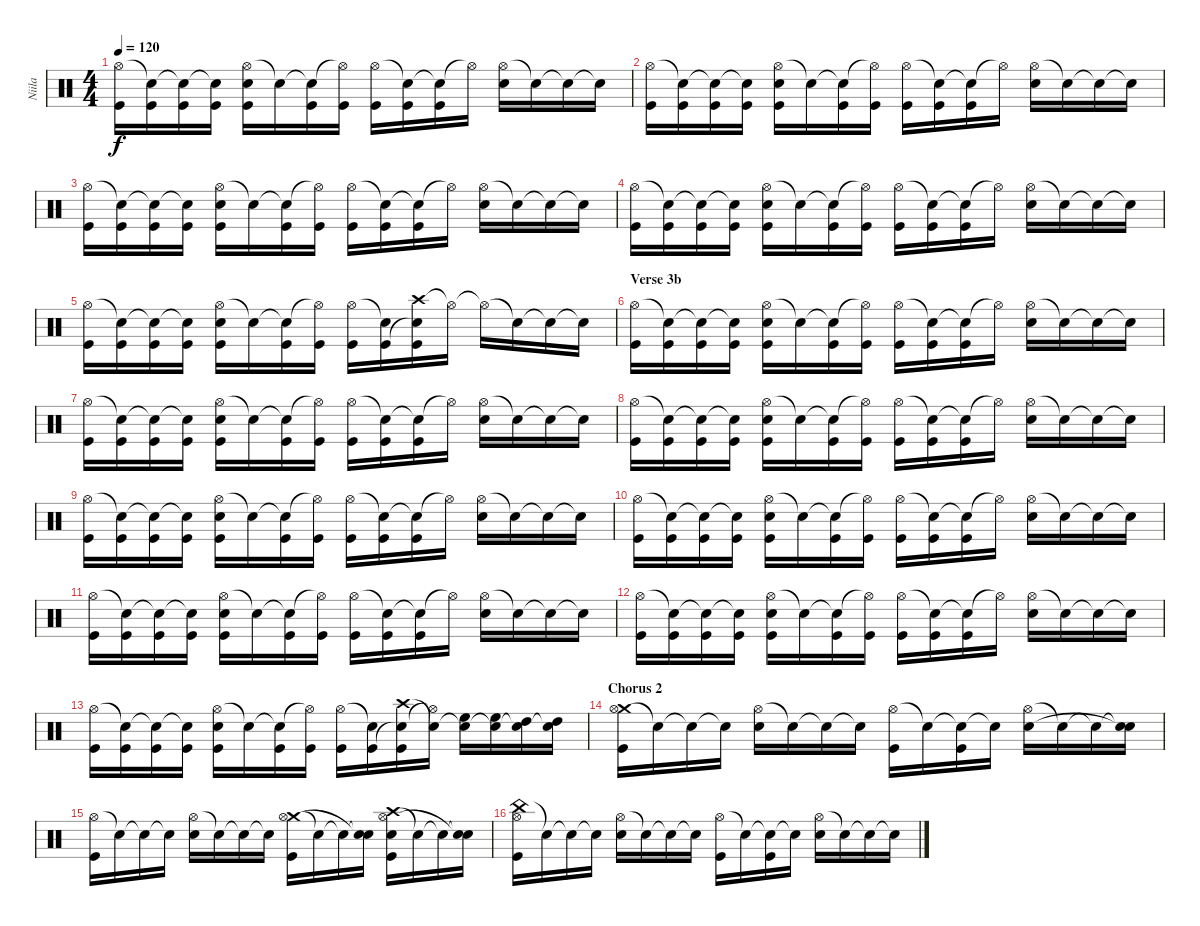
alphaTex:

\track ("Niila" "Niila") {instrument percussion}
\staff {score}
\articulation defaults
\ts (4 4)
\tempo 120
\clef neutral
\ks c
("Hi-Hat (open)" "Kick (hit)").16{dy f} ("Snare (hit)"{t} "Kick (hit)").16 ("Snare (hit)"{t} "Kick (hit)").16 ("Snare (hit)"{t} "Kick (hit)").16 ("Hi-Hat (open)" "Snare (hit) 2" "Kick (hit)").16 "Snare (hit)"{t}.16 ("Snare (hit)"{t} "Kick (hit)").16 ("Hi-Hat (open)"{t} "Kick (hit)").16 ("Hi-Hat (open)" "Kick (hit)").16 ("Snare (hit)"{t} "Kick (hit)").16 ("Snare (hit)"{t} "Kick (hit)").16 "Hi-Hat (open)"{t}.16 ("Hi-Hat (open)" "Snare (hit) 2").16 "Snare (hit)"{t}.16 "Snare (hit)"{t}.16 "Snare (hit)"{t}.16 |
("Hi-Hat (open)" "Kick (hit)").16 ("Snare (hit)"{t} "Kick (hit)").16 ("Snare (hit)"{t} "Kick (hit)").16 ("Snare (hit)"{t} "Kick (hit)").16 ("Hi-Hat (open)" "Snare (hit) 2" "Kick (hit)").16 "Snare (hit)"{t}.16 ("Snare (hit)"{t} "Kick (hit)").16 ("Hi-Hat (open)"{t} "Kick (hit)").16 ("Hi-Hat (open)" "Kick (hit)").16 ("Snare (hit)"{t} "Kick (hit)").16 ("Snare (hit)"{t} "Kick (hit)").16 "Hi-Hat (open)"{t}.16 ("Hi-Hat (open)" "Snare (hit) 2").16 "Snare (hit)"{t}.16 "Snare (hit)"{t}.16 "Snare (hit)"{t}.16 |
("Hi-Hat (open)" "Kick (hit)").16 ("Snare (hit)"{t} "Kick (hit)").16 ("Snare (hit)"{t} "Kick (hit)").16 ("Snare (hit)"{t} "Kick (hit)").16 ("Hi-Hat (open)" "Snare (hit) 2" "Kick (hit)").16 "Snare (hit)"{t}.16 ("Snare (hit)"{t} "Kick (hit)").16 ("Hi-Hat (open)"{t} "Kick (hit)").16 ("Hi-Hat (open)" "Kick (hit)").16 ("Snare (hit)"{t} "Kick (hit)").16 ("Snare (hit)"{t} "Kick (hit)").16 "Hi-Hat (open)"{t}.16 ("Hi-Hat (open)" "Snare (hit) 2").16 "Snare (hit)"{t}.16 "Snare (hit)"{t}.16 "Snare (hit)"{t}.16 |
("Hi-Hat (open)" "Kick (hit)").16 ("Snare (hit)"{t} "Kick (hit)").16 ("Snare (hit)"{t} "Kick (hit)").16 ("Snare (hit)"{t} "Kick (hit)").16 ("Hi-Hat (open)" "Snare (hit) 2" "Kick (hit)").16 "Snare (hit)"{t}.16 ("Snare (hit)"{t} "Kick (hit)").16 ("Hi-Hat (open)"{t} "Kick (hit)").16 ("Hi-Hat (open)" "Kick (hit)").16 ("Snare (hit)"{t} "Kick (hit)").16 ("Snare (hit)"{t} "Kick (hit)").16 "Hi-Hat (open)"{t}.16 ("Hi-Hat (open)" "Snare (hit) 2").16 "Snare (hit)"{t}.16 "Snare (hit)"{t}.16 "Snare (hit)"{t}.16 |
("Hi-Hat (open)" "Kick (hit)").16 ("Snare (hit)"{t} "Kick (hit)").16 ("Snare (hit)"{t} "Kick (hit)").16 ("Snare (hit)"{t} "Kick (hit)").16 ("Hi-Hat (open)" "Snare (hit) 2" "Kick (hit)").16 "Snare (hit)"{t}.16 ("Snare (hit)"{t} "Kick (hit)").16 ("Hi-Hat (open)"{t} "Kick (hit)").16 ("Hi-Hat (open)" "Kick (hit)").16 ("Snare (hit)"{t} "Kick (hit)").16 ("Crash high (hit)" "Snare (hit)"{t} "Kick (hit)").16 "Hi-Hat (open)"{t}.16 "Hi-Hat (open)"{t}.16 "Snare (hit)"{t}.16 "Snare (hit)"{t}.16 "Snare (hit)"{t}.16 |
\section ("" "Verse 3b")
("Hi-Hat (open)" "Kick (hit)").16 ("Snare (hit)"{t} "Kick (hit)").16 ("Snare (hit)"{t} "Kick (hit)").16 ("Snare (hit)"{t} "Kick (hit)").16 ("Hi-Hat (open)" "Snare (hit) 2" "Kick (hit)").16 "Snare (hit)"{t}.16 ("Snare (hit)"{t} "Kick (hit)").16 ("Hi-Hat (open)"{t} "Kick (hit)").16 ("Hi-Hat (open)" "Kick (hit)").16 ("Snare (hit)"{t} "Kick (hit)").16 ("Snare (hit)"{t} "Kick (hit)").16 "Hi-Hat (open)"{t}.16 ("Hi-Hat (open)" "Snare (hit) 2").16 "Snare (hit)"{t}.16 "Snare (hit)"{t}.16 "Snare (hit)"{t}.16 |
("Hi-Hat (open)" "Kick (hit)").16 ("Snare (hit)"{t} "Kick (hit)").16 ("Snare (hit)"{t} "Kick (hit)").16 ("Snare (hit)"{t} "Kick (hit)").16 ("Hi-Hat (open)" "Snare (hit) 2" "Kick (hit)").16 "Snare (hit)"{t}.16 ("Snare (hit)"{t} "Kick (hit)").16 ("Hi-Hat (open)"{t} "Kick (hit)").16 ("Hi-Hat (open)" "Kick (hit)").16 ("Snare (hit)"{t} "Kick (hit)").16 ("Snare (hit)"{t} "Kick (hit)").16 "Hi-Hat (open)"{t}.16 ("Hi-Hat (open)" "Snare (hit) 2").16 "Snare (hit)"{t}.16 "Snare (hit)"{t}.16 "Snare (hit)"{t}.16 |
("Hi-Hat (open)" "Kick (hit)").16 ("Snare (hit)"{t} "Kick (hit)").16 ("Snare (hit)"{t} "Kick (hit)").16 ("Snare (hit)"{t} "Kick (hit)").16 ("Hi-Hat (open)" "Snare (hit) 2" "Kick (hit)").16 "Snare (hit)"{t}.16 ("Snare (hit)"{t} "Kick (hit)").16 ("Hi-Hat (open)"{t} "Kick (hit)").16 ("Hi-Hat (open)" "Kick (hit)").16 ("Snare (hit)"{t} "Kick (hit)").16 ("Snare (hit)"{t} "Kick (hit)").16 "Hi-Hat (open)"{t}.16 ("Hi-Hat (open)" "Snare (hit) 2").16 "Snare (hit)"{t}.16 "Snare (hit)"{t}.16 "Snare (hit)"{t}.16 |
("Hi-Hat (open)" "Kick (hit)").16 ("Snare (hit)"{t} "Kick (hit)").16 ("Snare (hit)"{t} "Kick (hit)").16 ("Snare (hit)"{t} "Kick (hit)").16 ("Hi-Hat (open)" "Snare (hit) 2" "Kick (hit)").16 "Snare (hit)"{t}.16 ("Snare (hit)"{t} "Kick (hit)").16 ("Hi-Hat (open)"{t} "Kick (hit)").16 ("Hi-Hat (open)" "Kick (hit)").16 ("Snare (hit)"{t} "Kick (hit)").16 ("Snare (hit)"{t} "Kick (hit)").16 "Hi-Hat (open)"{t}.16 ("Hi-Hat (open)" "Snare (hit) 2").16 "Snare (hit)"{t}.16 "Snare (hit)"{t}.16 "Snare (hit)"{t}.16 |
("Hi-Hat (open)" "Kick (hit)").16 ("Snare (hit)"{t} "Kick (hit)").16 ("Snare (hit)"{t} "Kick (hit)").16 ("Snare (hit)"{t} "Kick (hit)").16 ("Hi-Hat (open)" "Snare (hit) 2" "Kick (hit)").16 "Snare (hit)"{t}.16 ("Snare (hit)"{t} "Kick (hit)").16 ("Hi-Hat (open)"{t} "Kick (hit)").16 ("Hi-Hat (open)" "Kick (hit)").16 ("Snare (hit)"{t} "Kick (hit)").16 ("Snare (hit)"{t} "Kick (hit)").16 "Hi-Hat (open)"{t}.16 ("Hi-Hat (open)" "Snare (hit) 2").16 "Snare (hit)"{t}.16 "Snare (hit)"{t}.16 "Snare (hit)"{t}.16 |
("Hi-Hat (open)" "Kick (hit)").16 ("Snare (hit)"{t} "Kick (hit)").16 ("Snare (hit)"{t} "Kick (hit)").16 ("Snare (hit)"{t} "Kick (hit)").16 ("Hi-Hat (open)" "Snare (hit) 2" "Kick (hit)").16 "Snare (hit)"{t}.16 ("Snare (hit)"{t} "Kick (hit)").16 ("Hi-Hat (open)"{t} "Kick (hit)").16 ("Hi-Hat (open)" "Kick (hit)").16 ("Snare (hit)"{t} "Kick (hit)").16 ("Snare (hit)"{t} "Kick (hit)").16 "Hi-Hat (open)"{t}.16 ("Hi-Hat (open)" "Snare (hit) 2").16 "Snare (hit)"{t}.16 "Snare (hit)"{t}.16 "Snare (hit)"{t}.16 |
("Hi-Hat (open)" "Kick (hit)").16 ("Snare (hit)"{t} "Kick (hit)").16 ("Snare (hit)"{t} "Kick (hit)").16 ("Snare (hit)"{t} "Kick (hit)").16 ("Hi-Hat (open)" "Snare (hit) 2" "Kick (hit)").16 "Snare (hit)"{t}.16 ("Snare (hit)"{t} "Kick (hit)").16 ("Hi-Hat (open)"{t} "Kick (hit)").16 ("Hi-Hat (open)" "Kick (hit)").16 ("Snare (hit)"{t} "Kick (hit)").16 ("Snare (hit)"{t} "Kick (hit)").16 "Hi-Hat (open)"{t}.16 ("Hi-Hat (open)" "Snare (hit) 2").16 "Snare (hit)"{t}.16 "Snare (hit)"{t}.16 "Snare (hit)"{t}.16 |
("Hi-Hat (open)" "Kick (hit)").16 ("Snare (hit)"{t} "Kick (hit)").16 ("Snare (hit)"{t} "Kick (hit)").16 ("Snare (hit)"{t} "Kick (hit)").16 ("Hi-Hat (open)" "Snare (hit) 2" "Kick (hit)").16 "Snare (hit)"{t}.16 ("Snare (hit)"{t} "Kick (hit)").16 ("Hi-Hat (open)"{t} "Kick (hit)").16 ("Hi-Hat (open)" "Kick (hit)").16 ("Snare (hit)"{t} "Kick (hit)").16 ("Crash high (hit)" "Snare (hit)"{t} "Kick (hit)").16 ("Snare (hit)"{t} "Hi-Hat (open)"{t}).16 ("Snare (hit)"{t} "High Floor Tom (hit)").16 ("Snare (hit)"{t} "High Floor Tom (hit)").16 ("Snare (hit)"{t} "High Tom (hit)").16 ("Snare (hit)"{t} "High Tom (hit)").16 |
\section ("" "Chorus 2")
("Crash medium (hit)" "Hi-Hat (open)" "Kick (hit)").16 "Snare (hit)"{t}.16 "Snare (hit)"{t}.16 "Snare (hit)"{t}.16 ("Hi-Hat (open)" "Snare (hit) 2").16 "Snare (hit)"{t}.16 "Snare (hit)"{t}.16 "Snare (hit)"{t}.16 ("Hi-Hat (open)" "Kick (hit)").16 "Snare (hit)"{t}.16 ("Snare (hit)"{t} "Kick (hit)").16 "Snare (hit)"{t}.16 ("Hi-Hat (open)" "Snare (hit) 2").16 "Snare (hit)"{t}.16 "Snare (hit)"{t}.16 ("Snare (hit)"{t} "Snare (hit)"{t}).16 |
("Hi-Hat (open)" "Kick (hit)").16 "Snare (hit)"{t}.16 "Snare (hit)"{t}.16 "Snare (hit)"{t}.16 ("Hi-Hat (open)" "Snare (hit) 2").16 "Snare (hit)"{t}.16 "Snare (hit)"{t}.16 "Snare (hit)"{t}.16 ("Crash medium (hit)" "Hi-Hat (open)" "Kick (hit)").16 "Snare (hit)"{t}.16 "Snare (hit)"{t}.16 ("Snare (hit)"{t} "Snare (hit)"{t}).16 ("Crash high (hit)" "Hi-Hat (open)" "Snare (hit) 2" "Kick (hit)").16 "Snare (hit)"{t}.16 "Snare (hit)"{t}.16 ("Snare (hit)"{t} "Snare (hit)"{t}).16 |
("China (hit)" "Hi-Hat (open)" "Kick (hit)").16 "Snare (hit)"{t}.16 "Snare (hit)"{t}.16 "Snare (hit)"{t}.16 ("Hi-Hat (open)" "Snare (hit) 2").16 "Snare (hit)"{t}.16 "Snare (hit)"{t}.16 "Snare (hit)"{t}.16 ("Hi-Hat (open)" "Kick (hit)").16 "Snare (hit)"{t}.16 ("Snare (hit)"{t} "Kick (hit)").16 "Snare (hit)"{t}.16 ("Hi-Hat (open)" "Snare (hit) 2").16 "Snare (hit)"{t}.16 "Snare (hit)"{t}.16 "Snare (hit)"{t}.16
